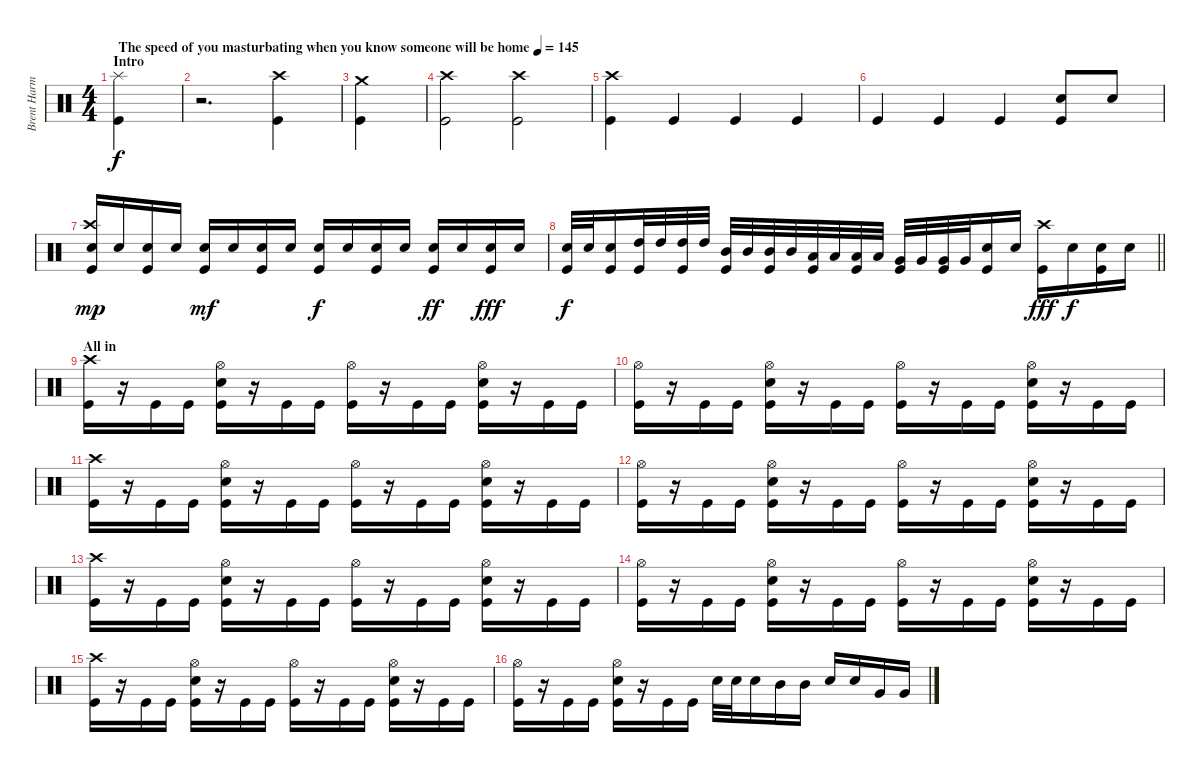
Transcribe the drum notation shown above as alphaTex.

\track ("Brent Harman" "Brent Harm") {instrument percussion}
\staff {score}
\articulation defaults
\ts (4 4)
\section ("" "Intro")
\tempo (145 "The speed of you masturbating when you know someone will be home")
\clef neutral
\ks c
("Splash (hit)" "Kick (hit)").4{dy f} |
r.2{d} ("Crash high (hit)" "Kick (hit)").4 |
("Crash medium (hit)" "Kick (hit)").4 |
("Crash high (hit)" "Kick (hit)").2 ("Crash high (hit)" "Kick (hit)").2 |
("Crash high (hit)" "Kick (hit)").4 "Kick (hit)".4 "Kick (hit)".4 "Kick (hit)".4 |
"Kick (hit)".4 "Kick (hit)".4 "Kick (hit)".4 ("Snare (hit) 2" "Kick (hit)").8 "Snare (hit) 2".8 |
("Crash high (hit)" "Snare (hit) 2" "Kick (hit)").16{dy mp} "Snare (hit) 2".16 ("Snare (hit) 2" "Kick (hit)").16 "Snare (hit) 2".16 ("Snare (hit) 2" "Kick (hit)").16{dy mf} "Snare (hit) 2".16 ("Snare (hit) 2" "Kick (hit)").16 "Snare (hit) 2".16 ("Snare (hit) 2" "Kick (hit)").16{dy f} "Snare (hit) 2".16 ("Snare (hit) 2" "Kick (hit)").16 "Snare (hit) 2".16 ("Snare (hit) 2" "Kick (hit)").16{dy ff} "Snare (hit) 2".16 ("Snare (hit) 2" "Kick (hit)").16{dy fff} "Snare (hit) 2".16 |
\barLineRight lightlight
("Snare (hit) 2" "Kick (hit)").32{dy f} "Snare (hit) 2".32 ("Snare (hit) 2" "Kick (hit)").16 ("High Tom (hit)" "Kick (hit)").32 "High Tom (hit)".32 ("High Tom (hit)" "Kick (hit)").32 "High Tom (hit)".32 ("Mid Tom (hit)" "Kick (hit)").32 "Mid Tom (hit)".32 ("Mid Tom (hit)" "Kick (hit)").32 "Mid Tom (hit)".32 ("Low Tom (hit)" "Kick (hit)").32 "Low Tom (hit)".32 ("Low Tom (hit)" "Kick (hit)").32 "Low Tom (hit)".32 ("Very Low Tom (hit)" "Kick (hit)").32 "Very Low Tom (hit)".32 ("Very Low Tom (hit)" "Kick (hit)").32 "Very Low Tom (hit)".32 ("Snare (hit) 2" "Kick (hit)").16 "Snare (hit) 2".16 ("Crash high (hit)" "Kick (hit)").16{dy fff} "Snare (hit) 2".16{dy f} ("Snare (hit) 2" "Kick (hit)").16 "Snare (hit) 2".16 |
\section ("" "All in")
("Crash high (hit)" "Kick (hit)").16 r.16 "Kick (hit)".16 "Kick (hit)".16 ("Hi-Hat (open)" "Snare (hit) 2" "Kick (hit)").16 r.16 "Kick (hit)".16 "Kick (hit)".16 ("Hi-Hat (open)" "Kick (hit)").16 r.16 "Kick (hit)".16 "Kick (hit)".16 ("Hi-Hat (open)" "Snare (hit) 2" "Kick (hit)").16 r.16 "Kick (hit)".16 "Kick (hit)".16 |
("Hi-Hat (open)" "Kick (hit)").16 r.16 "Kick (hit)".16 "Kick (hit)".16 ("Hi-Hat (open)" "Snare (hit) 2" "Kick (hit)").16 r.16 "Kick (hit)".16 "Kick (hit)".16 ("Hi-Hat (open)" "Kick (hit)").16 r.16 "Kick (hit)".16 "Kick (hit)".16 ("Hi-Hat (open)" "Snare (hit) 2" "Kick (hit)").16 r.16 "Kick (hit)".16 "Kick (hit)".16 |
("Crash high (hit)" "Kick (hit)").16 r.16 "Kick (hit)".16 "Kick (hit)".16 ("Hi-Hat (open)" "Snare (hit) 2" "Kick (hit)").16 r.16 "Kick (hit)".16 "Kick (hit)".16 ("Hi-Hat (open)" "Kick (hit)").16 r.16 "Kick (hit)".16 "Kick (hit)".16 ("Hi-Hat (open)" "Snare (hit) 2" "Kick (hit)").16 r.16 "Kick (hit)".16 "Kick (hit)".16 |
("Hi-Hat (open)" "Kick (hit)").16 r.16 "Kick (hit)".16 "Kick (hit)".16 ("Hi-Hat (open)" "Snare (hit) 2" "Kick (hit)").16 r.16 "Kick (hit)".16 "Kick (hit)".16 ("Hi-Hat (open)" "Kick (hit)").16 r.16 "Kick (hit)".16 "Kick (hit)".16 ("Hi-Hat (open)" "Snare (hit) 2" "Kick (hit)").16 r.16 "Kick (hit)".16 "Kick (hit)".16 |
("Crash high (hit)" "Kick (hit)").16 r.16 "Kick (hit)".16 "Kick (hit)".16 ("Hi-Hat (open)" "Snare (hit) 2" "Kick (hit)").16 r.16 "Kick (hit)".16 "Kick (hit)".16 ("Hi-Hat (open)" "Kick (hit)").16 r.16 "Kick (hit)".16 "Kick (hit)".16 ("Hi-Hat (open)" "Snare (hit) 2" "Kick (hit)").16 r.16 "Kick (hit)".16 "Kick (hit)".16 |
("Hi-Hat (open)" "Kick (hit)").16 r.16 "Kick (hit)".16 "Kick (hit)".16 ("Hi-Hat (open)" "Snare (hit) 2" "Kick (hit)").16 r.16 "Kick (hit)".16 "Kick (hit)".16 ("Hi-Hat (open)" "Kick (hit)").16 r.16 "Kick (hit)".16 "Kick (hit)".16 ("Hi-Hat (open)" "Snare (hit) 2" "Kick (hit)").16 r.16 "Kick (hit)".16 "Kick (hit)".16 |
("Crash high (hit)" "Kick (hit)").16 r.16 "Kick (hit)".16 "Kick (hit)".16 ("Hi-Hat (open)" "Snare (hit) 2" "Kick (hit)").16 r.16 "Kick (hit)".16 "Kick (hit)".16 ("Hi-Hat (open)" "Kick (hit)").16 r.16 "Kick (hit)".16 "Kick (hit)".16 ("Hi-Hat (open)" "Snare (hit) 2" "Kick (hit)").16 r.16 "Kick (hit)".16 "Kick (hit)".16 |
("Hi-Hat (open)" "Kick (hit)").16 r.16 "Kick (hit)".16 "Kick (hit)".16 ("Hi-Hat (open)" "Snare (hit) 2" "Kick (hit)").16 r.16 "Kick (hit)".16 "Kick (hit)".16 "Snare (hit) 2".32 "Snare (hit) 2".32 "Snare (hit) 2".16 "Mid Tom (hit)".16 "Mid Tom (hit)".16 "Snare (hit) 2".16 "Snare (hit) 2".16 "Very Low Tom (hit)".16 "Very Low Tom (hit)".16
